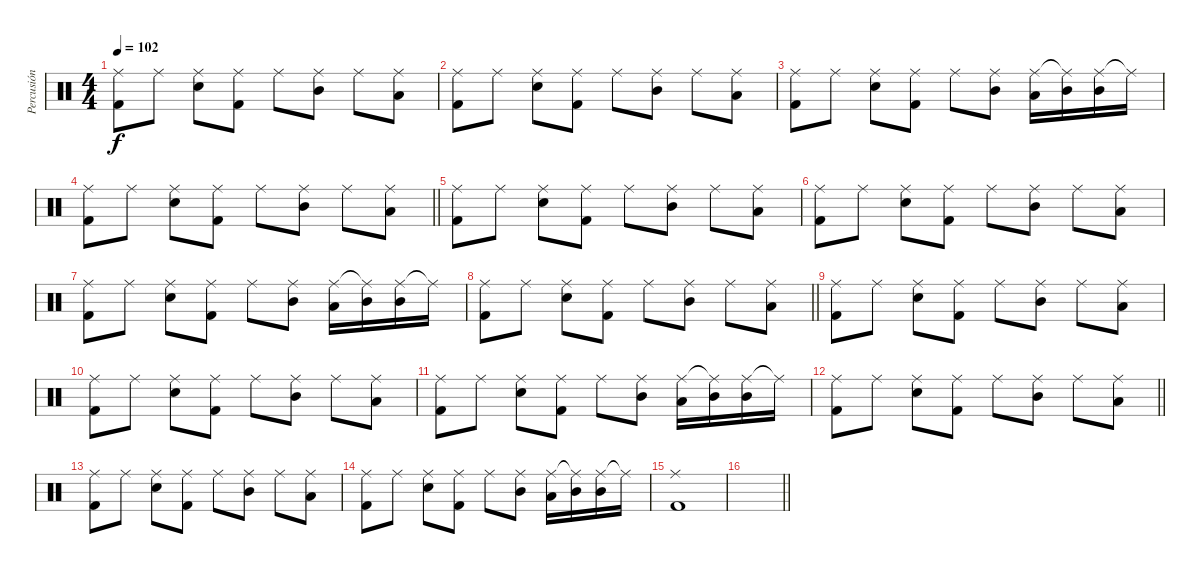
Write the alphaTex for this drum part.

\track ("Percusión" "Percusión") {instrument percussion}
\staff {score}
\articulation defaults
\ts (4 4)
\tempo 102
\clef neutral
\ks c
("Ride (middle)" "Kick (hit) 2").8{dy f} "Ride (middle)".8 ("Ride (middle)" "Snare (hit) 2").8 ("Ride (middle)" "Kick (hit) 2").8 "Ride (middle)".8 ("Ride (middle)" "Mid Tom (hit)").8 "Ride (middle)".8 ("Ride (middle)" "Low Tom (hit)").8 |
("Ride (middle)" "Kick (hit) 2").8 "Ride (middle)".8 ("Ride (middle)" "Snare (hit) 2").8 ("Ride (middle)" "Kick (hit) 2").8 "Ride (middle)".8 ("Ride (middle)" "Mid Tom (hit)").8 "Ride (middle)".8 ("Ride (middle)" "Low Tom (hit)").8 |
("Ride (middle)" "Kick (hit) 2").8 "Ride (middle)".8 ("Ride (middle)" "Snare (hit) 2").8 ("Ride (middle)" "Kick (hit) 2").8 "Ride (middle)".8 ("Ride (middle)" "Mid Tom (hit)").8 ("Ride (middle)" "Low Tom (hit)").16 ("Ride (middle)"{t} "Mid Tom (hit)").16 ("Ride (middle)" "Mid Tom (hit)").16 "Ride (middle)"{t}.16 |
\barLineRight lightlight
("Ride (middle)" "Kick (hit) 2").8 "Ride (middle)".8 ("Ride (middle)" "Snare (hit) 2").8 ("Ride (middle)" "Kick (hit) 2").8 "Ride (middle)".8 ("Ride (middle)" "Mid Tom (hit)").8 "Ride (middle)".8 ("Ride (middle)" "Low Tom (hit)").8 |
("Ride (middle)" "Kick (hit) 2").8 "Ride (middle)".8 ("Ride (middle)" "Snare (hit) 2").8 ("Ride (middle)" "Kick (hit) 2").8 "Ride (middle)".8 ("Ride (middle)" "Mid Tom (hit)").8 "Ride (middle)".8 ("Ride (middle)" "Low Tom (hit)").8 |
("Ride (middle)" "Kick (hit) 2").8 "Ride (middle)".8 ("Ride (middle)" "Snare (hit) 2").8 ("Ride (middle)" "Kick (hit) 2").8 "Ride (middle)".8 ("Ride (middle)" "Mid Tom (hit)").8 "Ride (middle)".8 ("Ride (middle)" "Low Tom (hit)").8 |
("Ride (middle)" "Kick (hit) 2").8 "Ride (middle)".8 ("Ride (middle)" "Snare (hit) 2").8 ("Ride (middle)" "Kick (hit) 2").8 "Ride (middle)".8 ("Ride (middle)" "Mid Tom (hit)").8 ("Ride (middle)" "Low Tom (hit)").16 ("Ride (middle)"{t} "Mid Tom (hit)").16 ("Ride (middle)" "Mid Tom (hit)").16 "Ride (middle)"{t}.16 |
\barLineRight lightlight
("Ride (middle)" "Kick (hit) 2").8 "Ride (middle)".8 ("Ride (middle)" "Snare (hit) 2").8 ("Ride (middle)" "Kick (hit) 2").8 "Ride (middle)".8 ("Ride (middle)" "Mid Tom (hit)").8 "Ride (middle)".8 ("Ride (middle)" "Low Tom (hit)").8 |
("Ride (middle)" "Kick (hit) 2").8 "Ride (middle)".8 ("Ride (middle)" "Snare (hit) 2").8 ("Ride (middle)" "Kick (hit) 2").8 "Ride (middle)".8 ("Ride (middle)" "Mid Tom (hit)").8 "Ride (middle)".8 ("Ride (middle)" "Low Tom (hit)").8 |
("Ride (middle)" "Kick (hit) 2").8 "Ride (middle)".8 ("Ride (middle)" "Snare (hit) 2").8 ("Ride (middle)" "Kick (hit) 2").8 "Ride (middle)".8 ("Ride (middle)" "Mid Tom (hit)").8 "Ride (middle)".8 ("Ride (middle)" "Low Tom (hit)").8 |
("Ride (middle)" "Kick (hit) 2").8 "Ride (middle)".8 ("Ride (middle)" "Snare (hit) 2").8 ("Ride (middle)" "Kick (hit) 2").8 "Ride (middle)".8 ("Ride (middle)" "Mid Tom (hit)").8 ("Ride (middle)" "Low Tom (hit)").16 ("Ride (middle)"{t} "Mid Tom (hit)").16 ("Ride (middle)" "Mid Tom (hit)").16 "Ride (middle)"{t}.16 |
\barLineRight lightlight
("Ride (middle)" "Kick (hit) 2").8 "Ride (middle)".8 ("Ride (middle)" "Snare (hit) 2").8 ("Ride (middle)" "Kick (hit) 2").8 "Ride (middle)".8 ("Ride (middle)" "Mid Tom (hit)").8 "Ride (middle)".8 ("Ride (middle)" "Low Tom (hit)").8 |
("Ride (middle)" "Kick (hit) 2").8 "Ride (middle)".8 ("Ride (middle)" "Snare (hit) 2").8 ("Ride (middle)" "Kick (hit) 2").8 "Ride (middle)".8 ("Ride (middle)" "Mid Tom (hit)").8 "Ride (middle)".8 ("Ride (middle)" "Low Tom (hit)").8 |
("Ride (middle)" "Kick (hit) 2").8 "Ride (middle)".8 ("Ride (middle)" "Snare (hit) 2").8 ("Ride (middle)" "Kick (hit) 2").8 "Ride (middle)".8 ("Ride (middle)" "Mid Tom (hit)").8 ("Ride (middle)" "Low Tom (hit)").16 ("Ride (middle)"{t} "Mid Tom (hit)").16 ("Ride (middle)" "Mid Tom (hit)").16 "Ride (middle)"{t}.16 |
("Ride (middle)" "Kick (hit) 2").1 |
\barLineRight lightlight
